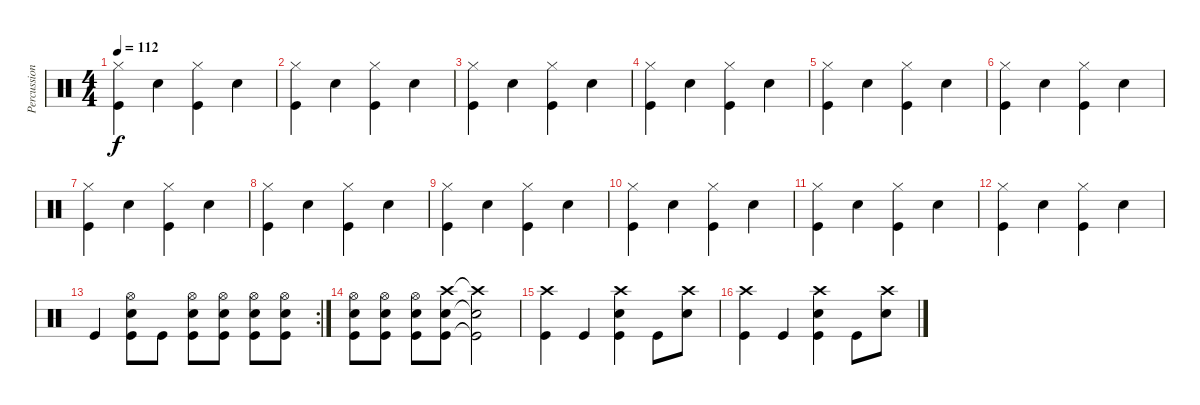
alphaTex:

\track ("Percussions" "Percussion") {instrument percussion}
\staff {score}
\articulation defaults
\ts (4 4)
\tempo 112
\clef neutral
\ks c
("Kick (hit)" "Hi-Hat (closed)").4{dy f} "Electric Snare (hit)".4 ("Kick (hit)" "Hi-Hat (closed)").4 "Electric Snare (hit)".4 |
("Kick (hit)" "Hi-Hat (closed)").4 "Electric Snare (hit)".4 ("Kick (hit)" "Hi-Hat (closed)").4 "Electric Snare (hit)".4 |
("Kick (hit)" "Hi-Hat (closed)").4 "Electric Snare (hit)".4 ("Kick (hit)" "Hi-Hat (closed)").4 "Electric Snare (hit)".4 |
("Kick (hit)" "Hi-Hat (closed)").4 "Electric Snare (hit)".4 ("Kick (hit)" "Hi-Hat (closed)").4 "Electric Snare (hit)".4 |
("Kick (hit)" "Hi-Hat (closed)").4 "Electric Snare (hit)".4 ("Kick (hit)" "Hi-Hat (closed)").4 "Electric Snare (hit)".4 |
("Kick (hit)" "Hi-Hat (closed)").4 "Electric Snare (hit)".4 ("Kick (hit)" "Hi-Hat (closed)").4 "Electric Snare (hit)".4 |
("Kick (hit)" "Hi-Hat (closed)").4 "Electric Snare (hit)".4 ("Kick (hit)" "Hi-Hat (closed)").4 "Electric Snare (hit)".4 |
("Kick (hit)" "Hi-Hat (closed)").4 "Electric Snare (hit)".4 ("Kick (hit)" "Hi-Hat (closed)").4 "Electric Snare (hit)".4 |
("Kick (hit)" "Hi-Hat (closed)").4 "Electric Snare (hit)".4 ("Kick (hit)" "Hi-Hat (closed)").4 "Electric Snare (hit)".4 |
("Kick (hit)" "Hi-Hat (closed)").4 "Electric Snare (hit)".4 ("Kick (hit)" "Hi-Hat (closed)").4 "Electric Snare (hit)".4 |
("Kick (hit)" "Hi-Hat (closed)").4 "Electric Snare (hit)".4 ("Kick (hit)" "Hi-Hat (closed)").4 "Electric Snare (hit)".4 |
("Kick (hit)" "Hi-Hat (closed)").4 "Electric Snare (hit)".4 ("Kick (hit)" "Hi-Hat (closed)").4 "Electric Snare (hit)".4 |
\rc 2 "Kick (hit)".4
("Kick (hit)" "Electric Snare (hit)" "Hi-Hat (open)").8 "Kick (hit)".8 ("Kick (hit)" "Electric Snare (hit)" "Hi-Hat (open)").8 ("Kick (hit)" "Electric Snare (hit)" "Hi-Hat (open)").8 ("Kick (hit)" "Electric Snare (hit)" "Hi-Hat (open)").8 ("Kick (hit)" "Electric Snare (hit)" "Hi-Hat (open)").8 |
("Kick (hit)" "Electric Snare (hit)" "Hi-Hat (open)").8 ("Kick (hit)" "Electric Snare (hit)" "Hi-Hat (open)").8 ("Kick (hit)" "Electric Snare (hit)" "Hi-Hat (open)").8 ("Kick (hit)" "Electric Snare (hit)" "Crash high (hit)").8 ("Kick (hit)"{t} "Electric Snare (hit)"{t} "Crash high (hit)"{t}).2 |
("Kick (hit)" "Crash high (hit)").4 "Kick (hit)".4 ("Kick (hit)" "Electric Snare (hit)" "Crash high (hit)").4 "Kick (hit)".8 ("Crash high (hit)" "Electric Snare (hit)").8 |
("Crash high (hit)" "Kick (hit)").4 "Kick (hit)".4 ("Crash high (hit)" "Kick (hit)" "Electric Snare (hit)").4 "Kick (hit)".8 ("Crash high (hit)" "Electric Snare (hit)").8
